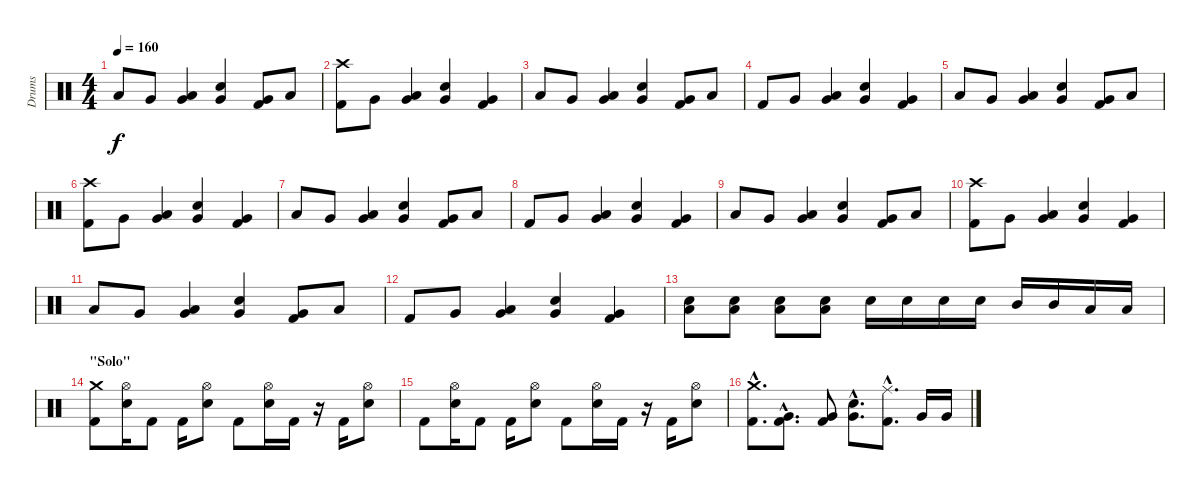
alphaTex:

\track ("Drums" "Drums") {instrument percussion}
\staff {score}
\articulation defaults
\ts (4 4)
\tempo 160
\clef neutral
\ks c "Low Tom (hit)".8{dy f} "Very Low Tom (hit)".8
("Very Low Tom (hit)" "Low Tom (hit)").4 ("Very Low Tom (hit)" "Electric Snare (hit)").4 ("Kick (hit) 2" "Very Low Tom (hit)").8 "Low Floor Tom (hit)".8 |
("Kick (hit) 2" "Crash high (hit)").8 "Very Low Tom (hit)".8 ("Very Low Tom (hit)" "Low Tom (hit)").4 ("Very Low Tom (hit)" "Electric Snare (hit)").4 ("Kick (hit) 2" "Very Low Tom (hit)").4 |
"Low Tom (hit)".8 "Very Low Tom (hit)".8 ("Very Low Tom (hit)" "Low Tom (hit)").4 ("Very Low Tom (hit)" "Electric Snare (hit)").4 ("Kick (hit) 2" "Very Low Tom (hit)").8 "Low Floor Tom (hit)".8 |
"Kick (hit) 2".8 "Very Low Tom (hit)".8 ("Very Low Tom (hit)" "Low Tom (hit)").4 ("Very Low Tom (hit)" "Electric Snare (hit)").4 ("Kick (hit) 2" "Very Low Tom (hit)").4 |
"Low Tom (hit)".8 "Very Low Tom (hit)".8 ("Very Low Tom (hit)" "Low Tom (hit)").4 ("Very Low Tom (hit)" "Electric Snare (hit)").4 ("Kick (hit) 2" "Very Low Tom (hit)").8 "Low Floor Tom (hit)".8 |
("Kick (hit) 2" "Crash high (hit)").8 "Very Low Tom (hit)".8 ("Very Low Tom (hit)" "Low Tom (hit)").4 ("Very Low Tom (hit)" "Electric Snare (hit)").4 ("Kick (hit) 2" "Very Low Tom (hit)").4 |
"Low Tom (hit)".8 "Very Low Tom (hit)".8 ("Very Low Tom (hit)" "Low Tom (hit)").4 ("Very Low Tom (hit)" "Electric Snare (hit)").4 ("Kick (hit) 2" "Very Low Tom (hit)").8 "Low Floor Tom (hit)".8 |
"Kick (hit) 2".8 "Very Low Tom (hit)".8 ("Very Low Tom (hit)" "Low Tom (hit)").4 ("Very Low Tom (hit)" "Electric Snare (hit)").4 ("Kick (hit) 2" "Very Low Tom (hit)").4 |
"Low Tom (hit)".8 "Very Low Tom (hit)".8 ("Very Low Tom (hit)" "Low Tom (hit)").4 ("Very Low Tom (hit)" "Electric Snare (hit)").4 ("Kick (hit) 2" "Very Low Tom (hit)").8 "Low Floor Tom (hit)".8 |
("Kick (hit) 2" "Crash high (hit)").8 "Very Low Tom (hit)".8 ("Very Low Tom (hit)" "Low Tom (hit)").4 ("Very Low Tom (hit)" "Electric Snare (hit)").4 ("Kick (hit) 2" "Very Low Tom (hit)").4 |
"Low Tom (hit)".8 "Very Low Tom (hit)".8 ("Very Low Tom (hit)" "Low Tom (hit)").4 ("Very Low Tom (hit)" "Electric Snare (hit)").4 ("Kick (hit) 2" "Very Low Tom (hit)").8 "Low Floor Tom (hit)".8 |
"Kick (hit) 2".8 "Very Low Tom (hit)".8 ("Very Low Tom (hit)" "Low Tom (hit)").4 ("Very Low Tom (hit)" "Electric Snare (hit)").4 ("Kick (hit) 2" "Very Low Tom (hit)").4 |
("Low Floor Tom (hit)" "Electric Snare (hit)").8 ("Low Floor Tom (hit)" "Electric Snare (hit)").8 ("Low Floor Tom (hit)" "Electric Snare (hit)").8 ("Low Floor Tom (hit)" "Electric Snare (hit)").8 "Electric Snare (hit)".16 "Electric Snare (hit)".16 "Electric Snare (hit)".16 "Electric Snare (hit)".16 "Mid Tom (hit)".16 "Mid Tom (hit)".16 "Low Tom (hit)".16 "Low Tom (hit)".16 |
\section ("" "\"Solo\"")
("Kick (hit) 2" "Crash medium (hit)").8 ("Electric Snare (hit)" "Hi-Hat (open)").16 "Kick (hit) 2".8 "Kick (hit) 2".16 ("Electric Snare (hit)" "Hi-Hat (open)").8 "Kick (hit) 2".8 ("Electric Snare (hit)" "Hi-Hat (open)").16 "Kick (hit) 2".16 r.16 "Kick (hit) 2".16 ("Electric Snare (hit)" "Hi-Hat (open)").8 |
"Kick (hit) 2".8 ("Electric Snare (hit)" "Hi-Hat (open)").16 "Kick (hit) 2".8 "Kick (hit) 2".16 ("Electric Snare (hit)" "Hi-Hat (open)").8 "Kick (hit) 2".8 ("Electric Snare (hit)" "Hi-Hat (open)").16 "Kick (hit) 2".16 r.16 "Kick (hit) 2".16 ("Electric Snare (hit)" "Hi-Hat (open)").8 |
("Kick (hit) 2"{hac} "Crash medium (hit)"{hac}).8{d} ("Kick (hit) 2"{hac} "Very Low Tom (hit)"{hac}).8{d} ("Kick (hit) 2" "Very Low Tom (hit)").8 ("Electric Snare (hit)"{hac} "Very Low Tom (hit)"{hac}).8{d} ("Kick (hit) 2"{hac} "Ride (middle)"{hac}).8{d} "Very Low Tom (hit)".16 "Very Low Tom (hit)".16
